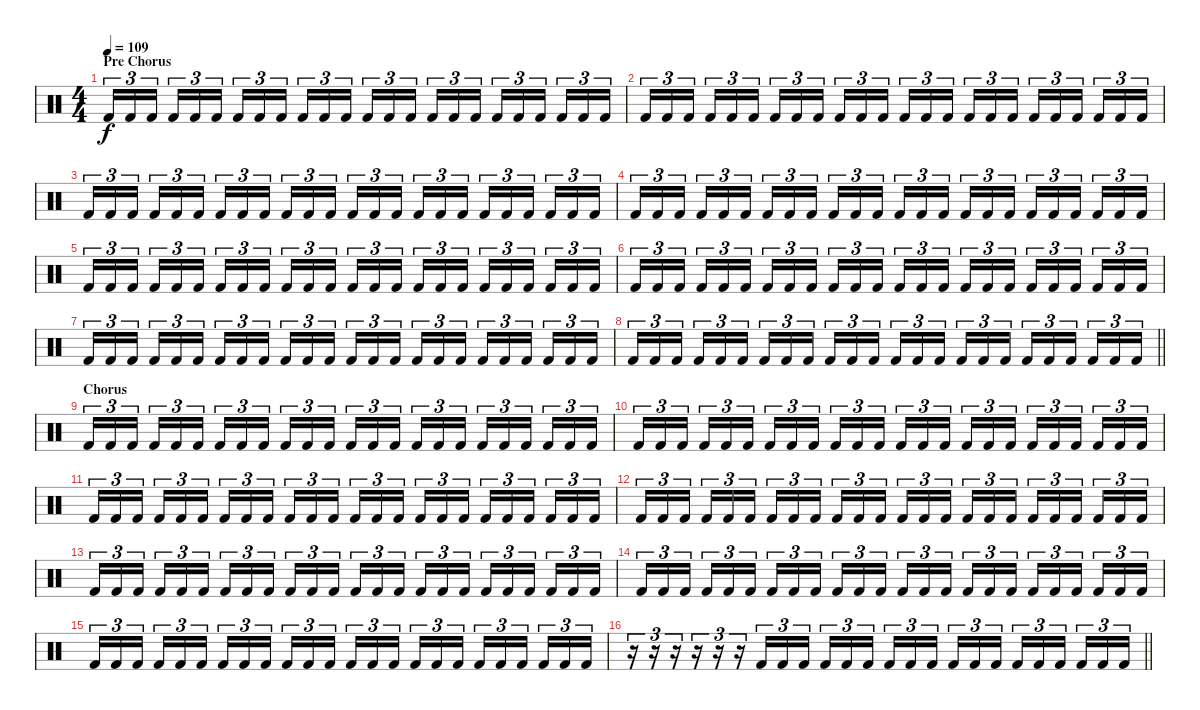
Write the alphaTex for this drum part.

\track "" {instrument percussion}
\staff {score}
\articulation defaults
\ts (4 4)
\section ("" "Pre Chorus")
\tempo 109
\clef neutral
\ks c "Kick (hit) 2".16{tu (3 2) dy f} "Kick (hit) 2".16{tu (3 2)} "Kick (hit) 2".16{tu (3 2) beam splitsecondary} "Kick (hit) 2".16{tu (3 2)} "Kick (hit) 2".16{tu (3 2)} "Kick (hit) 2".16{tu (3 2)} "Kick (hit) 2".16{tu (3 2)} "Kick (hit) 2".16{tu (3 2)} "Kick (hit) 2".16{tu (3 2) beam splitsecondary} "Kick (hit) 2".16{tu (3 2)} "Kick (hit) 2".16{tu (3 2)} "Kick (hit) 2".16{tu (3 2)} "Kick (hit) 2".16{tu (3 2)} "Kick (hit) 2".16{tu (3 2)} "Kick (hit) 2".16{tu (3 2) beam splitsecondary} "Kick (hit) 2".16{tu (3 2)} "Kick (hit) 2".16{tu (3 2)} "Kick (hit) 2".16{tu (3 2)} "Kick (hit) 2".16{tu (3 2)} "Kick (hit) 2".16{tu (3 2)} "Kick (hit) 2".16{tu (3 2) beam splitsecondary} "Kick (hit) 2".16{tu (3 2)} "Kick (hit) 2".16{tu (3 2)} "Kick (hit) 2".16{tu (3 2)}
|
"Kick (hit) 2".16{tu (3 2)} "Kick (hit) 2".16{tu (3 2)} "Kick (hit) 2".16{tu (3 2) beam splitsecondary} "Kick (hit) 2".16{tu (3 2)} "Kick (hit) 2".16{tu (3 2)} "Kick (hit) 2".16{tu (3 2)} "Kick (hit) 2".16{tu (3 2)} "Kick (hit) 2".16{tu (3 2)} "Kick (hit) 2".16{tu (3 2) beam splitsecondary} "Kick (hit) 2".16{tu (3 2)} "Kick (hit) 2".16{tu (3 2)} "Kick (hit) 2".16{tu (3 2)} "Kick (hit) 2".16{tu (3 2)} "Kick (hit) 2".16{tu (3 2)} "Kick (hit) 2".16{tu (3 2) beam splitsecondary} "Kick (hit) 2".16{tu (3 2)} "Kick (hit) 2".16{tu (3 2)} "Kick (hit) 2".16{tu (3 2)} "Kick (hit) 2".16{tu (3 2)} "Kick (hit) 2".16{tu (3 2)} "Kick (hit) 2".16{tu (3 2) beam splitsecondary} "Kick (hit) 2".16{tu (3 2)} "Kick (hit) 2".16{tu (3 2)} "Kick (hit) 2".16{tu (3 2)} |
"Kick (hit) 2".16{tu (3 2)} "Kick (hit) 2".16{tu (3 2)} "Kick (hit) 2".16{tu (3 2) beam splitsecondary} "Kick (hit) 2".16{tu (3 2)} "Kick (hit) 2".16{tu (3 2)} "Kick (hit) 2".16{tu (3 2)} "Kick (hit) 2".16{tu (3 2)} "Kick (hit) 2".16{tu (3 2)} "Kick (hit) 2".16{tu (3 2) beam splitsecondary} "Kick (hit) 2".16{tu (3 2)} "Kick (hit) 2".16{tu (3 2)} "Kick (hit) 2".16{tu (3 2)} "Kick (hit) 2".16{tu (3 2)} "Kick (hit) 2".16{tu (3 2)} "Kick (hit) 2".16{tu (3 2) beam splitsecondary} "Kick (hit) 2".16{tu (3 2)} "Kick (hit) 2".16{tu (3 2)} "Kick (hit) 2".16{tu (3 2)} "Kick (hit) 2".16{tu (3 2)} "Kick (hit) 2".16{tu (3 2)} "Kick (hit) 2".16{tu (3 2) beam splitsecondary} "Kick (hit) 2".16{tu (3 2)} "Kick (hit) 2".16{tu (3 2)} "Kick (hit) 2".16{tu (3 2)} |
"Kick (hit) 2".16{tu (3 2)} "Kick (hit) 2".16{tu (3 2)} "Kick (hit) 2".16{tu (3 2) beam splitsecondary} "Kick (hit) 2".16{tu (3 2)} "Kick (hit) 2".16{tu (3 2)} "Kick (hit) 2".16{tu (3 2)} "Kick (hit) 2".16{tu (3 2)} "Kick (hit) 2".16{tu (3 2)} "Kick (hit) 2".16{tu (3 2) beam splitsecondary} "Kick (hit) 2".16{tu (3 2)} "Kick (hit) 2".16{tu (3 2)} "Kick (hit) 2".16{tu (3 2)} "Kick (hit) 2".16{tu (3 2)} "Kick (hit) 2".16{tu (3 2)} "Kick (hit) 2".16{tu (3 2) beam splitsecondary} "Kick (hit) 2".16{tu (3 2)} "Kick (hit) 2".16{tu (3 2)} "Kick (hit) 2".16{tu (3 2)} "Kick (hit) 2".16{tu (3 2)} "Kick (hit) 2".16{tu (3 2)} "Kick (hit) 2".16{tu (3 2) beam splitsecondary} "Kick (hit) 2".16{tu (3 2)} "Kick (hit) 2".16{tu (3 2)} "Kick (hit) 2".16{tu (3 2)} |
"Kick (hit) 2".16{tu (3 2)} "Kick (hit) 2".16{tu (3 2)} "Kick (hit) 2".16{tu (3 2) beam splitsecondary} "Kick (hit) 2".16{tu (3 2)} "Kick (hit) 2".16{tu (3 2)} "Kick (hit) 2".16{tu (3 2)} "Kick (hit) 2".16{tu (3 2)} "Kick (hit) 2".16{tu (3 2)} "Kick (hit) 2".16{tu (3 2) beam splitsecondary} "Kick (hit) 2".16{tu (3 2)} "Kick (hit) 2".16{tu (3 2)} "Kick (hit) 2".16{tu (3 2)} "Kick (hit) 2".16{tu (3 2)} "Kick (hit) 2".16{tu (3 2)} "Kick (hit) 2".16{tu (3 2) beam splitsecondary} "Kick (hit) 2".16{tu (3 2)} "Kick (hit) 2".16{tu (3 2)} "Kick (hit) 2".16{tu (3 2)} "Kick (hit) 2".16{tu (3 2)} "Kick (hit) 2".16{tu (3 2)} "Kick (hit) 2".16{tu (3 2) beam splitsecondary} "Kick (hit) 2".16{tu (3 2)} "Kick (hit) 2".16{tu (3 2)} "Kick (hit) 2".16{tu (3 2)} |
"Kick (hit) 2".16{tu (3 2)} "Kick (hit) 2".16{tu (3 2)} "Kick (hit) 2".16{tu (3 2) beam splitsecondary} "Kick (hit) 2".16{tu (3 2)} "Kick (hit) 2".16{tu (3 2)} "Kick (hit) 2".16{tu (3 2)} "Kick (hit) 2".16{tu (3 2)} "Kick (hit) 2".16{tu (3 2)} "Kick (hit) 2".16{tu (3 2) beam splitsecondary} "Kick (hit) 2".16{tu (3 2)} "Kick (hit) 2".16{tu (3 2)} "Kick (hit) 2".16{tu (3 2)} "Kick (hit) 2".16{tu (3 2)} "Kick (hit) 2".16{tu (3 2)} "Kick (hit) 2".16{tu (3 2) beam splitsecondary} "Kick (hit) 2".16{tu (3 2)} "Kick (hit) 2".16{tu (3 2)} "Kick (hit) 2".16{tu (3 2)} "Kick (hit) 2".16{tu (3 2)} "Kick (hit) 2".16{tu (3 2)} "Kick (hit) 2".16{tu (3 2) beam splitsecondary} "Kick (hit) 2".16{tu (3 2)} "Kick (hit) 2".16{tu (3 2)} "Kick (hit) 2".16{tu (3 2)} |
"Kick (hit) 2".16{tu (3 2)} "Kick (hit) 2".16{tu (3 2)} "Kick (hit) 2".16{tu (3 2) beam splitsecondary} "Kick (hit) 2".16{tu (3 2)} "Kick (hit) 2".16{tu (3 2)} "Kick (hit) 2".16{tu (3 2)} "Kick (hit) 2".16{tu (3 2)} "Kick (hit) 2".16{tu (3 2)} "Kick (hit) 2".16{tu (3 2) beam splitsecondary} "Kick (hit) 2".16{tu (3 2)} "Kick (hit) 2".16{tu (3 2)} "Kick (hit) 2".16{tu (3 2)} "Kick (hit) 2".16{tu (3 2)} "Kick (hit) 2".16{tu (3 2)} "Kick (hit) 2".16{tu (3 2) beam splitsecondary} "Kick (hit) 2".16{tu (3 2)} "Kick (hit) 2".16{tu (3 2)} "Kick (hit) 2".16{tu (3 2)} "Kick (hit) 2".16{tu (3 2)} "Kick (hit) 2".16{tu (3 2)} "Kick (hit) 2".16{tu (3 2) beam splitsecondary} "Kick (hit) 2".16{tu (3 2)} "Kick (hit) 2".16{tu (3 2)} "Kick (hit) 2".16{tu (3 2)} |
\barLineRight lightlight "Kick (hit) 2".16{tu (3 2)} "Kick (hit) 2".16{tu (3 2)} "Kick (hit) 2".16{tu (3 2) beam splitsecondary} "Kick (hit) 2".16{tu (3 2)} "Kick (hit) 2".16{tu (3 2)} "Kick (hit) 2".16{tu (3 2)} "Kick (hit) 2".16{tu (3 2)} "Kick (hit) 2".16{tu (3 2)} "Kick (hit) 2".16{tu (3 2) beam splitsecondary} "Kick (hit) 2".16{tu (3 2)} "Kick (hit) 2".16{tu (3 2)} "Kick (hit) 2".16{tu (3 2)} "Kick (hit) 2".16{tu (3 2)} "Kick (hit) 2".16{tu (3 2)} "Kick (hit) 2".16{tu (3 2) beam splitsecondary} "Kick (hit) 2".16{tu (3 2)} "Kick (hit) 2".16{tu (3 2)} "Kick (hit) 2".16{tu (3 2)} "Kick (hit) 2".16{tu (3 2)} "Kick (hit) 2".16{tu (3 2)} "Kick (hit) 2".16{tu (3 2) beam splitsecondary} "Kick (hit) 2".16{tu (3 2)} "Kick (hit) 2".16{tu (3 2)} "Kick (hit) 2".16{tu (3 2)}
|
\section ("" "Chorus")
"Kick (hit) 2".16{tu (3 2)} "Kick (hit) 2".16{tu (3 2)} "Kick (hit) 2".16{tu (3 2) beam splitsecondary} "Kick (hit) 2".16{tu (3 2)} "Kick (hit) 2".16{tu (3 2)} "Kick (hit) 2".16{tu (3 2)} "Kick (hit) 2".16{tu (3 2)} "Kick (hit) 2".16{tu (3 2)} "Kick (hit) 2".16{tu (3 2) beam splitsecondary} "Kick (hit) 2".16{tu (3 2)} "Kick (hit) 2".16{tu (3 2)} "Kick (hit) 2".16{tu (3 2)} "Kick (hit) 2".16{tu (3 2)} "Kick (hit) 2".16{tu (3 2)} "Kick (hit) 2".16{tu (3 2) beam splitsecondary} "Kick (hit) 2".16{tu (3 2)} "Kick (hit) 2".16{tu (3 2)} "Kick (hit) 2".16{tu (3 2)} "Kick (hit) 2".16{tu (3 2)} "Kick (hit) 2".16{tu (3 2)} "Kick (hit) 2".16{tu (3 2) beam splitsecondary} "Kick (hit) 2".16{tu (3 2)} "Kick (hit) 2".16{tu (3 2)} "Kick (hit) 2".16{tu (3 2)} |
"Kick (hit) 2".16{tu (3 2)} "Kick (hit) 2".16{tu (3 2)} "Kick (hit) 2".16{tu (3 2) beam splitsecondary} "Kick (hit) 2".16{tu (3 2)} "Kick (hit) 2".16{tu (3 2)} "Kick (hit) 2".16{tu (3 2)} "Kick (hit) 2".16{tu (3 2)} "Kick (hit) 2".16{tu (3 2)} "Kick (hit) 2".16{tu (3 2) beam splitsecondary} "Kick (hit) 2".16{tu (3 2)} "Kick (hit) 2".16{tu (3 2)} "Kick (hit) 2".16{tu (3 2)} "Kick (hit) 2".16{tu (3 2)} "Kick (hit) 2".16{tu (3 2)} "Kick (hit) 2".16{tu (3 2) beam splitsecondary} "Kick (hit) 2".16{tu (3 2)} "Kick (hit) 2".16{tu (3 2)} "Kick (hit) 2".16{tu (3 2)} "Kick (hit) 2".16{tu (3 2)} "Kick (hit) 2".16{tu (3 2)} "Kick (hit) 2".16{tu (3 2) beam splitsecondary} "Kick (hit) 2".16{tu (3 2)} "Kick (hit) 2".16{tu (3 2)} "Kick (hit) 2".16{tu (3 2)} |
"Kick (hit) 2".16{tu (3 2)} "Kick (hit) 2".16{tu (3 2)} "Kick (hit) 2".16{tu (3 2) beam splitsecondary} "Kick (hit) 2".16{tu (3 2)} "Kick (hit) 2".16{tu (3 2)} "Kick (hit) 2".16{tu (3 2)} "Kick (hit) 2".16{tu (3 2)} "Kick (hit) 2".16{tu (3 2)} "Kick (hit) 2".16{tu (3 2) beam splitsecondary} "Kick (hit) 2".16{tu (3 2)} "Kick (hit) 2".16{tu (3 2)} "Kick (hit) 2".16{tu (3 2)} "Kick (hit) 2".16{tu (3 2)} "Kick (hit) 2".16{tu (3 2)} "Kick (hit) 2".16{tu (3 2) beam splitsecondary} "Kick (hit) 2".16{tu (3 2)} "Kick (hit) 2".16{tu (3 2)} "Kick (hit) 2".16{tu (3 2)} "Kick (hit) 2".16{tu (3 2)} "Kick (hit) 2".16{tu (3 2)} "Kick (hit) 2".16{tu (3 2) beam splitsecondary} "Kick (hit) 2".16{tu (3 2)} "Kick (hit) 2".16{tu (3 2)} "Kick (hit) 2".16{tu (3 2)} |
"Kick (hit) 2".16{tu (3 2)} "Kick (hit) 2".16{tu (3 2)} "Kick (hit) 2".16{tu (3 2) beam splitsecondary} "Kick (hit) 2".16{tu (3 2)} "Kick (hit) 2".16{tu (3 2)} "Kick (hit) 2".16{tu (3 2)} "Kick (hit) 2".16{tu (3 2)} "Kick (hit) 2".16{tu (3 2)} "Kick (hit) 2".16{tu (3 2) beam splitsecondary} "Kick (hit) 2".16{tu (3 2)} "Kick (hit) 2".16{tu (3 2)} "Kick (hit) 2".16{tu (3 2)} "Kick (hit) 2".16{tu (3 2)} "Kick (hit) 2".16{tu (3 2)} "Kick (hit) 2".16{tu (3 2) beam splitsecondary} "Kick (hit) 2".16{tu (3 2)} "Kick (hit) 2".16{tu (3 2)} "Kick (hit) 2".16{tu (3 2)} "Kick (hit) 2".16{tu (3 2)} "Kick (hit) 2".16{tu (3 2)} "Kick (hit) 2".16{tu (3 2) beam splitsecondary} "Kick (hit) 2".16{tu (3 2)} "Kick (hit) 2".16{tu (3 2)} "Kick (hit) 2".16{tu (3 2)} |
"Kick (hit) 2".16{tu (3 2)} "Kick (hit) 2".16{tu (3 2)} "Kick (hit) 2".16{tu (3 2) beam splitsecondary} "Kick (hit) 2".16{tu (3 2)} "Kick (hit) 2".16{tu (3 2)} "Kick (hit) 2".16{tu (3 2)} "Kick (hit) 2".16{tu (3 2)} "Kick (hit) 2".16{tu (3 2)} "Kick (hit) 2".16{tu (3 2) beam splitsecondary} "Kick (hit) 2".16{tu (3 2)} "Kick (hit) 2".16{tu (3 2)} "Kick (hit) 2".16{tu (3 2)} "Kick (hit) 2".16{tu (3 2)} "Kick (hit) 2".16{tu (3 2)} "Kick (hit) 2".16{tu (3 2) beam splitsecondary} "Kick (hit) 2".16{tu (3 2)} "Kick (hit) 2".16{tu (3 2)} "Kick (hit) 2".16{tu (3 2)} "Kick (hit) 2".16{tu (3 2)} "Kick (hit) 2".16{tu (3 2)} "Kick (hit) 2".16{tu (3 2) beam splitsecondary} "Kick (hit) 2".16{tu (3 2)} "Kick (hit) 2".16{tu (3 2)} "Kick (hit) 2".16{tu (3 2)} |
"Kick (hit) 2".16{tu (3 2)} "Kick (hit) 2".16{tu (3 2)} "Kick (hit) 2".16{tu (3 2) beam splitsecondary} "Kick (hit) 2".16{tu (3 2)} "Kick (hit) 2".16{tu (3 2)} "Kick (hit) 2".16{tu (3 2)} "Kick (hit) 2".16{tu (3 2)} "Kick (hit) 2".16{tu (3 2)} "Kick (hit) 2".16{tu (3 2) beam splitsecondary} "Kick (hit) 2".16{tu (3 2)} "Kick (hit) 2".16{tu (3 2)} "Kick (hit) 2".16{tu (3 2)} "Kick (hit) 2".16{tu (3 2)} "Kick (hit) 2".16{tu (3 2)} "Kick (hit) 2".16{tu (3 2) beam splitsecondary} "Kick (hit) 2".16{tu (3 2)} "Kick (hit) 2".16{tu (3 2)} "Kick (hit) 2".16{tu (3 2)} "Kick (hit) 2".16{tu (3 2)} "Kick (hit) 2".16{tu (3 2)} "Kick (hit) 2".16{tu (3 2) beam splitsecondary} "Kick (hit) 2".16{tu (3 2)} "Kick (hit) 2".16{tu (3 2)} "Kick (hit) 2".16{tu (3 2)} |
"Kick (hit) 2".16{tu (3 2)} "Kick (hit) 2".16{tu (3 2)} "Kick (hit) 2".16{tu (3 2) beam splitsecondary} "Kick (hit) 2".16{tu (3 2)} "Kick (hit) 2".16{tu (3 2)} "Kick (hit) 2".16{tu (3 2)} "Kick (hit) 2".16{tu (3 2)} "Kick (hit) 2".16{tu (3 2)} "Kick (hit) 2".16{tu (3 2) beam splitsecondary} "Kick (hit) 2".16{tu (3 2)} "Kick (hit) 2".16{tu (3 2)} "Kick (hit) 2".16{tu (3 2)} "Kick (hit) 2".16{tu (3 2)} "Kick (hit) 2".16{tu (3 2)} "Kick (hit) 2".16{tu (3 2) beam splitsecondary} "Kick (hit) 2".16{tu (3 2)} "Kick (hit) 2".16{tu (3 2)} "Kick (hit) 2".16{tu (3 2)} "Kick (hit) 2".16{tu (3 2)} "Kick (hit) 2".16{tu (3 2)} "Kick (hit) 2".16{tu (3 2) beam splitsecondary} "Kick (hit) 2".16{tu (3 2)} "Kick (hit) 2".16{tu (3 2)} "Kick (hit) 2".16{tu (3 2)} |
\barLineRight lightlight
r.16{tu (3 2)} r.16{tu (3 2)} r.16{tu (3 2)} r.16{tu (3 2)} r.16{tu (3 2)} r.16{tu (3 2)} "Kick (hit) 2".16{tu (3 2)} "Kick (hit) 2".16{tu (3 2)} "Kick (hit) 2".16{tu (3 2) beam splitsecondary} "Kick (hit) 2".16{tu (3 2)} "Kick (hit) 2".16{tu (3 2)} "Kick (hit) 2".16{tu (3 2)} "Kick (hit) 2".16{tu (3 2)} "Kick (hit) 2".16{tu (3 2)} "Kick (hit) 2".16{tu (3 2) beam splitsecondary} "Kick (hit) 2".16{tu (3 2)} "Kick (hit) 2".16{tu (3 2)} "Kick (hit) 2".16{tu (3 2)} "Kick (hit) 2".16{tu (3 2)} "Kick (hit) 2".16{tu (3 2)} "Kick (hit) 2".16{tu (3 2) beam splitsecondary} "Kick (hit) 2".16{tu (3 2)} "Kick (hit) 2".16{tu (3 2)} "Kick (hit) 2".16{tu (3 2)}
